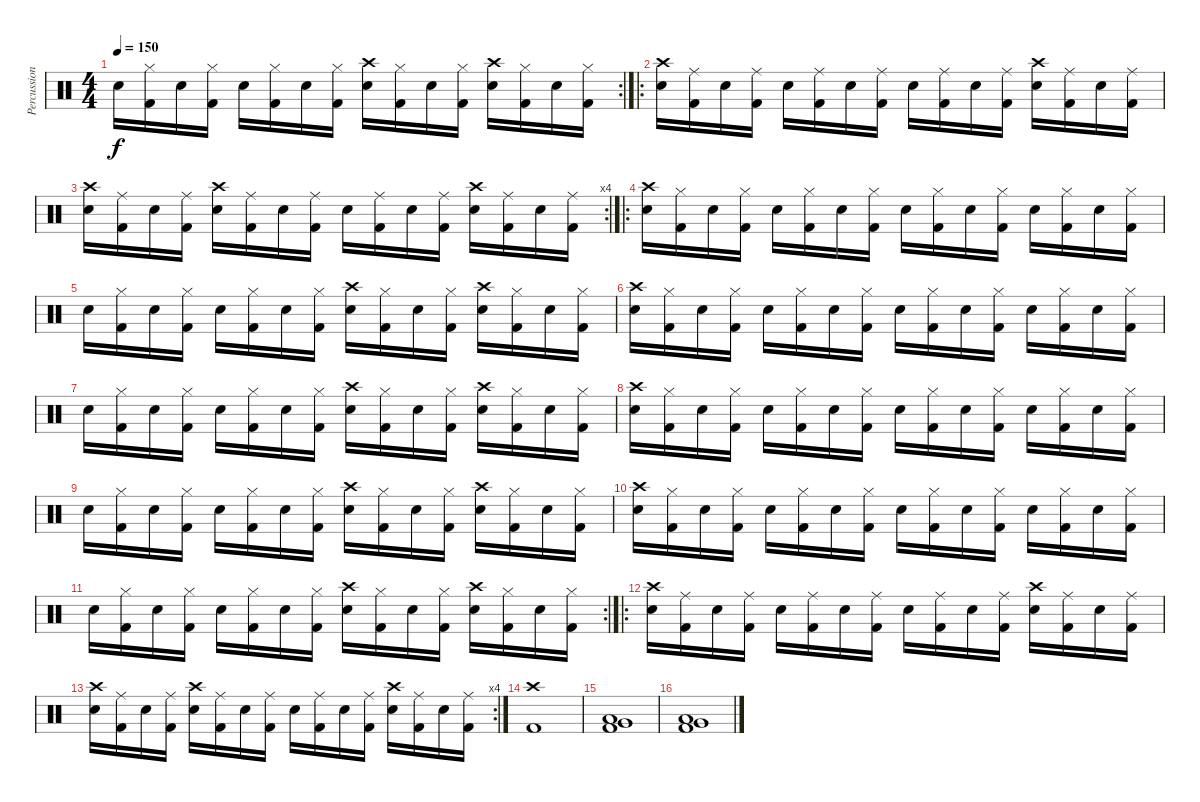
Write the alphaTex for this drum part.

\track ("Percussion" "Percussion") {instrument percussion}
\staff {score}
\articulation defaults
\rc 2
\ts (4 4)
\tempo 150
\clef neutral
\ks c "Snare (hit) 2".16{dy f}
("Kick (hit) 2" "Hi-Hat (closed)").16 "Snare (hit) 2".16 ("Kick (hit) 2" "Hi-Hat (closed)").16 "Snare (hit) 2".16 ("Kick (hit) 2" "Hi-Hat (closed)").16 "Snare (hit) 2".16 ("Kick (hit) 2" "Hi-Hat (closed)").16 ("Snare (hit) 2" "Crash high (hit)").16 ("Kick (hit) 2" "Hi-Hat (closed)").16 "Snare (hit) 2".16 ("Kick (hit) 2" "Hi-Hat (closed)").16 ("Snare (hit) 2" "Crash high (hit)").16 ("Kick (hit) 2" "Hi-Hat (closed)").16 "Snare (hit) 2".16 ("Kick (hit) 2" "Hi-Hat (closed)").16 |
\ro
("Snare (hit) 2" "Crash high (hit)").16 ("Kick (hit) 2" "Ride (middle)").16 "Snare (hit) 2".16 ("Kick (hit) 2" "Ride (middle)").16 "Snare (hit) 2".16 ("Kick (hit) 2" "Ride (middle)").16 "Snare (hit) 2".16 ("Kick (hit) 2" "Ride (middle)").16 "Snare (hit) 2".16 ("Kick (hit) 2" "Ride (middle)").16 "Snare (hit) 2".16 ("Kick (hit) 2" "Ride (middle)").16 ("Snare (hit) 2" "Crash high (hit)").16 ("Kick (hit) 2" "Ride (middle)").16 "Snare (hit) 2".16 ("Kick (hit) 2" "Ride (middle)").16 |
\rc 4
("Snare (hit) 2" "Crash high (hit)").16 ("Kick (hit) 2" "Ride (middle)").16 "Snare (hit) 2".16 ("Kick (hit) 2" "Ride (middle)").16 ("Snare (hit) 2" "Crash high (hit)").16 ("Kick (hit) 2" "Ride (middle)").16 "Snare (hit) 2".16 ("Kick (hit) 2" "Ride (middle)").16 "Snare (hit) 2".16 ("Kick (hit) 2" "Ride (middle)").16 "Snare (hit) 2".16 ("Kick (hit) 2" "Ride (middle)").16 ("Snare (hit) 2" "Crash high (hit)").16 ("Kick (hit) 2" "Ride (middle)").16 "Snare (hit) 2".16 ("Kick (hit) 2" "Ride (middle)").16 |
\ro
("Snare (hit) 2" "Crash high (hit)").16 ("Kick (hit) 2" "Hi-Hat (closed)").16 "Snare (hit) 2".16 ("Kick (hit) 2" "Hi-Hat (closed)").16 "Snare (hit) 2".16 ("Kick (hit) 2" "Hi-Hat (closed)").16 "Snare (hit) 2".16 ("Kick (hit) 2" "Hi-Hat (closed)").16 "Snare (hit) 2".16 ("Kick (hit) 2" "Hi-Hat (closed)").16 "Snare (hit) 2".16 ("Kick (hit) 2" "Hi-Hat (closed)").16 "Snare (hit) 2".16 ("Kick (hit) 2" "Hi-Hat (closed)").16 "Snare (hit) 2".16 ("Kick (hit) 2" "Hi-Hat (closed)").16 |
"Snare (hit) 2".16 ("Kick (hit) 2" "Hi-Hat (closed)").16 "Snare (hit) 2".16 ("Kick (hit) 2" "Hi-Hat (closed)").16 "Snare (hit) 2".16 ("Kick (hit) 2" "Hi-Hat (closed)").16 "Snare (hit) 2".16 ("Kick (hit) 2" "Hi-Hat (closed)").16 ("Snare (hit) 2" "Crash high (hit)").16 ("Kick (hit) 2" "Hi-Hat (closed)").16 "Snare (hit) 2".16 ("Kick (hit) 2" "Hi-Hat (closed)").16 ("Snare (hit) 2" "Crash high (hit)").16 ("Kick (hit) 2" "Hi-Hat (closed)").16 "Snare (hit) 2".16 ("Kick (hit) 2" "Hi-Hat (closed)").16 |
("Snare (hit) 2" "Crash high (hit)").16 ("Kick (hit) 2" "Hi-Hat (closed)").16 "Snare (hit) 2".16 ("Kick (hit) 2" "Hi-Hat (closed)").16 "Snare (hit) 2".16 ("Kick (hit) 2" "Hi-Hat (closed)").16 "Snare (hit) 2".16 ("Kick (hit) 2" "Hi-Hat (closed)").16 "Snare (hit) 2".16 ("Kick (hit) 2" "Hi-Hat (closed)").16 "Snare (hit) 2".16 ("Kick (hit) 2" "Hi-Hat (closed)").16 "Snare (hit) 2".16 ("Kick (hit) 2" "Hi-Hat (closed)").16 "Snare (hit) 2".16 ("Kick (hit) 2" "Hi-Hat (closed)").16 |
"Snare (hit) 2".16 ("Kick (hit) 2" "Hi-Hat (closed)").16 "Snare (hit) 2".16 ("Kick (hit) 2" "Hi-Hat (closed)").16 "Snare (hit) 2".16 ("Kick (hit) 2" "Hi-Hat (closed)").16 "Snare (hit) 2".16 ("Kick (hit) 2" "Hi-Hat (closed)").16 ("Snare (hit) 2" "Crash high (hit)").16 ("Kick (hit) 2" "Hi-Hat (closed)").16 "Snare (hit) 2".16 ("Kick (hit) 2" "Hi-Hat (closed)").16 ("Snare (hit) 2" "Crash high (hit)").16 ("Kick (hit) 2" "Hi-Hat (closed)").16 "Snare (hit) 2".16 ("Kick (hit) 2" "Hi-Hat (closed)").16 |
("Snare (hit) 2" "Crash high (hit)").16 ("Kick (hit) 2" "Hi-Hat (closed)").16 "Snare (hit) 2".16 ("Kick (hit) 2" "Hi-Hat (closed)").16 "Snare (hit) 2".16 ("Kick (hit) 2" "Hi-Hat (closed)").16 "Snare (hit) 2".16 ("Kick (hit) 2" "Hi-Hat (closed)").16 "Snare (hit) 2".16 ("Kick (hit) 2" "Hi-Hat (closed)").16 "Snare (hit) 2".16 ("Kick (hit) 2" "Hi-Hat (closed)").16 "Snare (hit) 2".16 ("Kick (hit) 2" "Hi-Hat (closed)").16 "Snare (hit) 2".16 ("Kick (hit) 2" "Hi-Hat (closed)").16 |
"Snare (hit) 2".16 ("Kick (hit) 2" "Hi-Hat (closed)").16 "Snare (hit) 2".16 ("Kick (hit) 2" "Hi-Hat (closed)").16 "Snare (hit) 2".16 ("Kick (hit) 2" "Hi-Hat (closed)").16 "Snare (hit) 2".16 ("Kick (hit) 2" "Hi-Hat (closed)").16 ("Snare (hit) 2" "Crash high (hit)").16 ("Kick (hit) 2" "Hi-Hat (closed)").16 "Snare (hit) 2".16 ("Kick (hit) 2" "Hi-Hat (closed)").16 ("Snare (hit) 2" "Crash high (hit)").16 ("Kick (hit) 2" "Hi-Hat (closed)").16 "Snare (hit) 2".16 ("Kick (hit) 2" "Hi-Hat (closed)").16 |
("Snare (hit) 2" "Crash high (hit)").16 ("Kick (hit) 2" "Hi-Hat (closed)").16 "Snare (hit) 2".16 ("Kick (hit) 2" "Hi-Hat (closed)").16 "Snare (hit) 2".16 ("Kick (hit) 2" "Hi-Hat (closed)").16 "Snare (hit) 2".16 ("Kick (hit) 2" "Hi-Hat (closed)").16 "Snare (hit) 2".16 ("Kick (hit) 2" "Hi-Hat (closed)").16 "Snare (hit) 2".16 ("Kick (hit) 2" "Hi-Hat (closed)").16 "Snare (hit) 2".16 ("Kick (hit) 2" "Hi-Hat (closed)").16 "Snare (hit) 2".16 ("Kick (hit) 2" "Hi-Hat (closed)").16 |
\rc 2 "Snare (hit) 2".16
("Kick (hit) 2" "Hi-Hat (closed)").16 "Snare (hit) 2".16 ("Kick (hit) 2" "Hi-Hat (closed)").16 "Snare (hit) 2".16 ("Kick (hit) 2" "Hi-Hat (closed)").16 "Snare (hit) 2".16 ("Kick (hit) 2" "Hi-Hat (closed)").16 ("Snare (hit) 2" "Crash high (hit)").16 ("Kick (hit) 2" "Hi-Hat (closed)").16 "Snare (hit) 2".16 ("Kick (hit) 2" "Hi-Hat (closed)").16 ("Snare (hit) 2" "Crash high (hit)").16 ("Kick (hit) 2" "Hi-Hat (closed)").16 "Snare (hit) 2".16 ("Kick (hit) 2" "Hi-Hat (closed)").16 |
\ro
("Snare (hit) 2" "Crash high (hit)").16 ("Kick (hit) 2" "Ride (middle)").16 "Snare (hit) 2".16 ("Kick (hit) 2" "Ride (middle)").16 "Snare (hit) 2".16 ("Kick (hit) 2" "Ride (middle)").16 "Snare (hit) 2".16 ("Kick (hit) 2" "Ride (middle)").16 "Snare (hit) 2".16 ("Kick (hit) 2" "Ride (middle)").16 "Snare (hit) 2".16 ("Kick (hit) 2" "Ride (middle)").16 ("Snare (hit) 2" "Crash high (hit)").16 ("Kick (hit) 2" "Ride (middle)").16 "Snare (hit) 2".16 ("Kick (hit) 2" "Ride (middle)").16 |
\rc 4
("Snare (hit) 2" "Crash high (hit)").16 ("Kick (hit) 2" "Ride (middle)").16 "Snare (hit) 2".16 ("Kick (hit) 2" "Ride (middle)").16 ("Snare (hit) 2" "Crash high (hit)").16 ("Kick (hit) 2" "Ride (middle)").16 "Snare (hit) 2".16 ("Kick (hit) 2" "Ride (middle)").16 "Snare (hit) 2".16 ("Kick (hit) 2" "Ride (middle)").16 "Snare (hit) 2".16 ("Kick (hit) 2" "Ride (middle)").16 ("Snare (hit) 2" "Crash high (hit)").16 ("Kick (hit) 2" "Ride (middle)").16 "Snare (hit) 2".16 ("Kick (hit) 2" "Ride (middle)").16 |
("Kick (hit) 2" "Crash high (hit)").1 |
("Kick (hit) 2" "Very Low Tom (hit)" "Low Floor Tom (hit)").1 |
("Kick (hit) 2" "Very Low Tom (hit)" "Low Floor Tom (hit)").1
